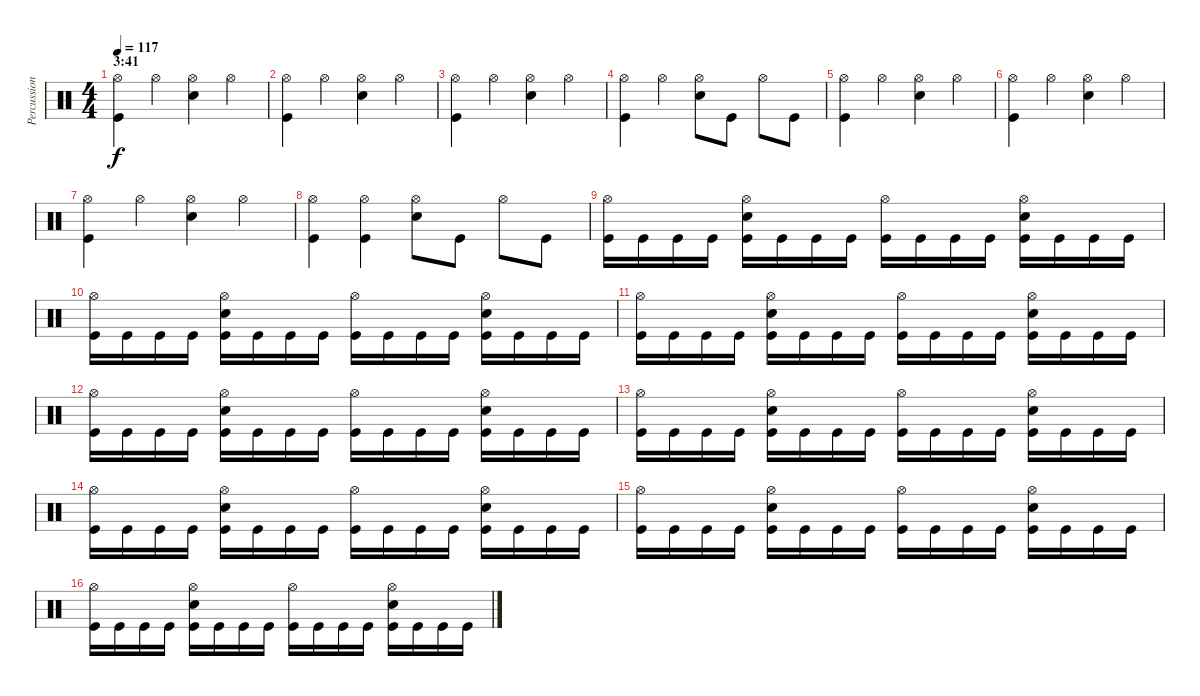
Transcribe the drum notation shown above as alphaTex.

\track ("Percussion" "Percussion") {instrument percussion}
\staff {score}
\articulation defaults
\ts (4 4)
\section ("" "3:41")
\tempo 117
\clef neutral
\ks c
("Hi-Hat (open)" "Kick (hit)").4{dy f} "Hi-Hat (open)".4 ("Hi-Hat (open)" "Electric Snare (hit)").4 "Hi-Hat (open)".4 |
("Hi-Hat (open)" "Kick (hit)").4 "Hi-Hat (open)".4 ("Hi-Hat (open)" "Electric Snare (hit)").4 "Hi-Hat (open)".4 |
("Hi-Hat (open)" "Kick (hit)").4 "Hi-Hat (open)".4 ("Hi-Hat (open)" "Electric Snare (hit)").4 "Hi-Hat (open)".4 |
("Hi-Hat (open)" "Kick (hit)").4 "Hi-Hat (open)".4 ("Hi-Hat (open)" "Electric Snare (hit)").8 "Kick (hit)".8 "Hi-Hat (open)".8 "Kick (hit)".8 |
("Hi-Hat (open)" "Kick (hit)").4 "Hi-Hat (open)".4 ("Hi-Hat (open)" "Electric Snare (hit)").4 "Hi-Hat (open)".4 |
("Hi-Hat (open)" "Kick (hit)").4 "Hi-Hat (open)".4 ("Hi-Hat (open)" "Electric Snare (hit)").4 "Hi-Hat (open)".4 |
("Hi-Hat (open)" "Kick (hit)").4 "Hi-Hat (open)".4 ("Hi-Hat (open)" "Electric Snare (hit)").4 "Hi-Hat (open)".4 |
("Hi-Hat (open)" "Kick (hit)").4 ("Hi-Hat (open)" "Kick (hit)").4 ("Hi-Hat (open)" "Electric Snare (hit)").8 "Kick (hit)".8 "Hi-Hat (open)".8 "Kick (hit)".8 |
("Hi-Hat (open)" "Kick (hit)").16 "Kick (hit)".16 "Kick (hit)".16 "Kick (hit)".16 ("Hi-Hat (open)" "Electric Snare (hit)" "Kick (hit)").16 "Kick (hit)".16 "Kick (hit)".16 "Kick (hit)".16 ("Hi-Hat (open)" "Kick (hit)").16 "Kick (hit)".16 "Kick (hit)".16 "Kick (hit)".16 ("Hi-Hat (open)" "Electric Snare (hit)" "Kick (hit)").16 "Kick (hit)".16 "Kick (hit)".16 "Kick (hit)".16 |
("Hi-Hat (open)" "Kick (hit)").16 "Kick (hit)".16 "Kick (hit)".16 "Kick (hit)".16 ("Hi-Hat (open)" "Electric Snare (hit)" "Kick (hit)").16 "Kick (hit)".16 "Kick (hit)".16 "Kick (hit)".16 ("Hi-Hat (open)" "Kick (hit)").16 "Kick (hit)".16 "Kick (hit)".16 "Kick (hit)".16 ("Hi-Hat (open)" "Electric Snare (hit)" "Kick (hit)").16 "Kick (hit)".16 "Kick (hit)".16 "Kick (hit)".16 |
("Hi-Hat (open)" "Kick (hit)").16 "Kick (hit)".16 "Kick (hit)".16 "Kick (hit)".16 ("Hi-Hat (open)" "Electric Snare (hit)" "Kick (hit)").16 "Kick (hit)".16 "Kick (hit)".16 "Kick (hit)".16 ("Hi-Hat (open)" "Kick (hit)").16 "Kick (hit)".16 "Kick (hit)".16 "Kick (hit)".16 ("Hi-Hat (open)" "Electric Snare (hit)" "Kick (hit)").16 "Kick (hit)".16 "Kick (hit)".16 "Kick (hit)".16 |
("Hi-Hat (open)" "Kick (hit)").16 "Kick (hit)".16 "Kick (hit)".16 "Kick (hit)".16 ("Hi-Hat (open)" "Electric Snare (hit)" "Kick (hit)").16 "Kick (hit)".16 "Kick (hit)".16 "Kick (hit)".16 ("Hi-Hat (open)" "Kick (hit)").16 "Kick (hit)".16 "Kick (hit)".16 "Kick (hit)".16 ("Hi-Hat (open)" "Electric Snare (hit)" "Kick (hit)").16 "Kick (hit)".16 "Kick (hit)".16 "Kick (hit)".16 |
("Hi-Hat (open)" "Kick (hit)").16 "Kick (hit)".16 "Kick (hit)".16 "Kick (hit)".16 ("Hi-Hat (open)" "Electric Snare (hit)" "Kick (hit)").16 "Kick (hit)".16 "Kick (hit)".16 "Kick (hit)".16 ("Hi-Hat (open)" "Kick (hit)").16 "Kick (hit)".16 "Kick (hit)".16 "Kick (hit)".16 ("Hi-Hat (open)" "Electric Snare (hit)" "Kick (hit)").16 "Kick (hit)".16 "Kick (hit)".16 "Kick (hit)".16 |
("Hi-Hat (open)" "Kick (hit)").16 "Kick (hit)".16 "Kick (hit)".16 "Kick (hit)".16 ("Hi-Hat (open)" "Electric Snare (hit)" "Kick (hit)").16 "Kick (hit)".16 "Kick (hit)".16 "Kick (hit)".16 ("Hi-Hat (open)" "Kick (hit)").16 "Kick (hit)".16 "Kick (hit)".16 "Kick (hit)".16 ("Hi-Hat (open)" "Electric Snare (hit)" "Kick (hit)").16 "Kick (hit)".16 "Kick (hit)".16 "Kick (hit)".16 |
("Hi-Hat (open)" "Kick (hit)").16 "Kick (hit)".16 "Kick (hit)".16 "Kick (hit)".16 ("Hi-Hat (open)" "Electric Snare (hit)" "Kick (hit)").16 "Kick (hit)".16 "Kick (hit)".16 "Kick (hit)".16 ("Hi-Hat (open)" "Kick (hit)").16 "Kick (hit)".16 "Kick (hit)".16 "Kick (hit)".16 ("Hi-Hat (open)" "Electric Snare (hit)" "Kick (hit)").16 "Kick (hit)".16 "Kick (hit)".16 "Kick (hit)".16 |
("Hi-Hat (open)" "Kick (hit)").16 "Kick (hit)".16 "Kick (hit)".16 "Kick (hit)".16 ("Hi-Hat (open)" "Electric Snare (hit)" "Kick (hit)").16 "Kick (hit)".16 "Kick (hit)".16 "Kick (hit)".16 ("Hi-Hat (open)" "Kick (hit)").16 "Kick (hit)".16 "Kick (hit)".16 "Kick (hit)".16 ("Hi-Hat (open)" "Electric Snare (hit)" "Kick (hit)").16 "Kick (hit)".16 "Kick (hit)".16 "Kick (hit)".16
